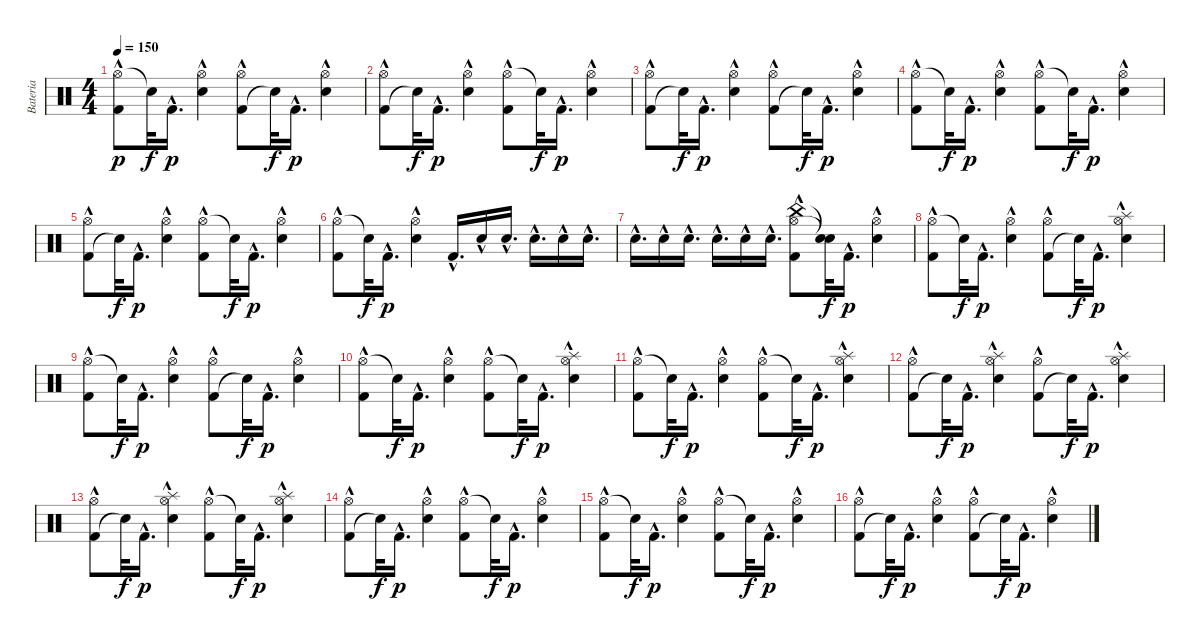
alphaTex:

\track ("Bateria" "Bateria") {instrument percussion}
\staff {score}
\articulation defaults
\ts (4 4)
\tempo 150
\clef neutral
\ks c
("Hi-Hat (open)" "Kick (hit) 2"{hac}).8{dy p} "Snare (hit)"{t}.32{dy f} "Kick (hit) 2"{hac}.16{d dy p} ("Snare (hit) 2"{hac} "Hi-Hat (open)").4 ("Kick (hit) 2"{hac} "Hi-Hat (open)").8 "Snare (hit)"{t}.32{dy f} "Kick (hit) 2"{hac}.16{d dy p} ("Hi-Hat (open)" "Snare (hit) 2"{hac}).4 |
("Kick (hit) 2"{hac} "Hi-Hat (open)").8 "Snare (hit)"{t}.32{dy f} "Kick (hit) 2"{hac}.16{d dy p} ("Snare (hit) 2"{hac} "Hi-Hat (open)").4 ("Hi-Hat (open)" "Kick (hit) 2"{hac}).8 "Snare (hit)"{t}.32{dy f} "Kick (hit) 2"{hac}.16{d dy p} ("Hi-Hat (open)" "Snare (hit) 2"{hac}).4 |
("Kick (hit) 2"{hac} "Hi-Hat (open)").8 "Snare (hit)"{t}.32{dy f} "Kick (hit) 2"{hac}.16{d dy p} ("Hi-Hat (open)" "Snare (hit) 2"{hac}).4 ("Kick (hit) 2"{hac} "Hi-Hat (open)").8 "Snare (hit)"{t}.32{dy f} "Kick (hit) 2"{hac}.16{d dy p} ("Snare (hit) 2"{hac} "Hi-Hat (open)").4 |
("Hi-Hat (open)" "Kick (hit) 2"{hac}).8 "Snare (hit)"{t}.32{dy f} "Kick (hit) 2"{hac}.16{d dy p} ("Hi-Hat (open)" "Snare (hit) 2"{hac}).4 ("Hi-Hat (open)" "Kick (hit) 2"{hac}).8 "Snare (hit)"{t}.32{dy f} "Kick (hit) 2"{hac}.16{d dy p} ("Hi-Hat (open)" "Snare (hit) 2"{hac}).4 |
("Kick (hit) 2"{hac} "Hi-Hat (open)").8 "Snare (hit)"{t}.32{dy f} "Kick (hit) 2"{hac}.16{d dy p} ("Snare (hit) 2"{hac} "Hi-Hat (open)").4 ("Hi-Hat (open)" "Kick (hit) 2"{hac}).8 "Snare (hit)"{t}.32{dy f} "Kick (hit) 2"{hac}.16{d dy p} ("Hi-Hat (open)" "Snare (hit) 2"{hac}).4 |
("Hi-Hat (open)" "Kick (hit) 2"{hac}).8 "Snare (hit)"{t}.32{dy f} "Kick (hit) 2"{hac}.16{d dy p} ("Snare (hit) 2"{hac} "Hi-Hat (open)").4 "Kick (hit) 2"{hac}.16{d} "Snare (hit) 2"{hac}.16 "Snare (hit) 2"{hac}.16{d} "Snare (hit) 2"{hac}.16{d} "Snare (hit) 2"{hac}.16 "Snare (hit) 2"{hac}.16{d} |
"Snare (hit) 2"{hac}.16{d} "Snare (hit) 2"{hac}.16 "Snare (hit) 2"{hac}.16{d} "Snare (hit) 2"{hac}.16{d} "Snare (hit) 2"{hac}.16 "Snare (hit) 2"{hac}.16{d} ("Hi-Hat (open)" "China (hit)" "Kick (hit) 2"{hac}).8 ("Snare (hit)"{t} "Snare (hit)"{t}).32{dy f} "Kick (hit) 2"{hac}.16{d dy p} ("Snare (hit) 2"{hac} "Hi-Hat (open)").4 |
("Hi-Hat (open)" "Kick (hit) 2"{hac}).8 "Snare (hit)"{t}.32{dy f} "Kick (hit) 2"{hac}.16{d dy p} ("Snare (hit) 2"{hac} "Hi-Hat (open)").4 ("Kick (hit) 2"{hac} "Hi-Hat (open)").8 "Snare (hit)"{t}.32{dy f} "Kick (hit) 2"{hac}.16{d dy p} ("Snare (hit) 2"{hac} "Hi-Hat (open)" "Splash (hit)").4 |
("Hi-Hat (open)" "Kick (hit) 2"{hac}).8 "Snare (hit)"{t}.32{dy f} "Kick (hit) 2"{hac}.16{d dy p} ("Hi-Hat (open)" "Snare (hit) 2"{hac}).4 ("Kick (hit) 2"{hac} "Hi-Hat (open)").8 "Snare (hit)"{t}.32{dy f} "Kick (hit) 2"{hac}.16{d dy p} ("Snare (hit) 2"{hac} "Hi-Hat (open)").4 |
("Hi-Hat (open)" "Kick (hit) 2"{hac}).8 "Snare (hit)"{t}.32{dy f} "Kick (hit) 2"{hac}.16{d dy p} ("Hi-Hat (open)" "Snare (hit) 2"{hac}).4 ("Hi-Hat (open)" "Kick (hit) 2"{hac}).8 "Snare (hit)"{t}.32{dy f} "Kick (hit) 2"{hac}.16{d dy p} ("Hi-Hat (open)" "Splash (hit)" "Snare (hit) 2"{hac}).4 |
("Hi-Hat (open)" "Kick (hit) 2"{hac}).8 "Snare (hit)"{t}.32{dy f} "Kick (hit) 2"{hac}.16{d dy p} ("Snare (hit) 2"{hac} "Hi-Hat (open)").4 ("Hi-Hat (open)" "Kick (hit) 2"{hac}).8 "Snare (hit)"{t}.32{dy f} "Kick (hit) 2"{hac}.16{d dy p} ("Snare (hit) 2"{hac} "Hi-Hat (open)" "Splash (hit)").4 |
("Kick (hit) 2"{hac} "Hi-Hat (open)").8 "Snare (hit)"{t}.32{dy f} "Kick (hit) 2"{hac}.16{d dy p} ("Hi-Hat (open)" "Splash (hit)" "Snare (hit) 2"{hac}).4 ("Kick (hit) 2"{hac} "Hi-Hat (open)").8 "Snare (hit)"{t}.32{dy f} "Kick (hit) 2"{hac}.16{d dy p} ("Snare (hit) 2"{hac} "Splash (hit)" "Hi-Hat (open)").4 |
("Kick (hit) 2"{hac} "Hi-Hat (open)").8 "Snare (hit)"{t}.32{dy f} "Kick (hit) 2"{hac}.16{d dy p} ("Snare (hit) 2"{hac} "Hi-Hat (open)" "Splash (hit)").4 ("Hi-Hat (open)" "Kick (hit) 2"{hac}).8 "Snare (hit)"{t}.32{dy f} "Kick (hit) 2"{hac}.16{d dy p} ("Hi-Hat (open)" "Snare (hit) 2"{hac} "Splash (hit)").4 |
("Kick (hit) 2"{hac} "Hi-Hat (open)").8 "Snare (hit)"{t}.32{dy f} "Kick (hit) 2"{hac}.16{d dy p} ("Snare (hit) 2"{hac} "Hi-Hat (open)").4 ("Hi-Hat (open)" "Kick (hit) 2"{hac}).8 "Snare (hit)"{t}.32{dy f} "Kick (hit) 2"{hac}.16{d dy p} ("Hi-Hat (open)" "Snare (hit) 2"{hac}).4 |
("Hi-Hat (open)" "Kick (hit) 2"{hac}).8 "Snare (hit)"{t}.32{dy f} "Kick (hit) 2"{hac}.16{d dy p} ("Snare (hit) 2"{hac} "Hi-Hat (open)").4 ("Hi-Hat (open)" "Kick (hit) 2"{hac}).8 "Snare (hit)"{t}.32{dy f} "Kick (hit) 2"{hac}.16{d dy p} ("Hi-Hat (open)" "Snare (hit) 2"{hac}).4 |
("Kick (hit) 2"{hac} "Hi-Hat (open)").8 "Snare (hit)"{t}.32{dy f} "Kick (hit) 2"{hac}.16{d dy p} ("Snare (hit) 2"{hac} "Hi-Hat (open)").4 ("Kick (hit) 2"{hac} "Hi-Hat (open)").8 "Snare (hit)"{t}.32{dy f} "Kick (hit) 2"{hac}.16{d dy p} ("Snare (hit) 2"{hac} "Hi-Hat (open)").4
